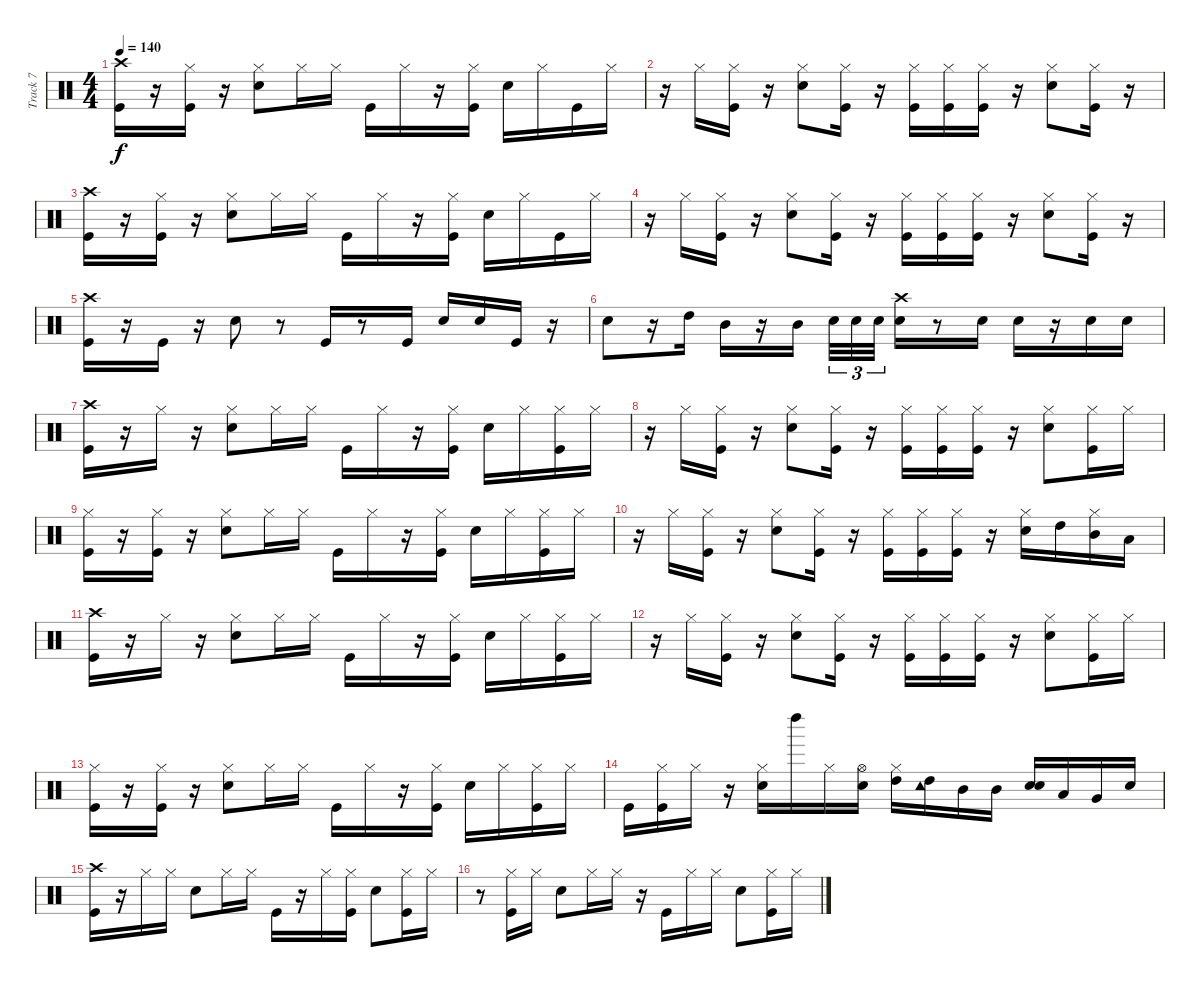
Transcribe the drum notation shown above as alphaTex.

\track ("Track 7" "Track 7") {instrument percussion}
\staff {score}
\articulation defaults
\ts (4 4)
\tempo 140
\clef neutral
\ks c
("Kick (hit)" "Crash high (hit)").16{dy f} r.16 ("Hi-Hat (closed)" "Kick (hit)").16 r.16 ("Hi-Hat (closed)" "Electric Snare (hit)").8 "Hi-Hat (closed)".16 "Hi-Hat (closed)".16 "Kick (hit)".16 "Hi-Hat (closed)".16 r.16 ("Kick (hit)" "Hi-Hat (closed)").16 "Electric Snare (hit)".16 "Hi-Hat (closed)".16 "Kick (hit)".16 "Hi-Hat (closed)".16 |
r.16 "Hi-Hat (closed)".16 ("Hi-Hat (closed)" "Kick (hit)").16 r.16 ("Hi-Hat (closed)" "Electric Snare (hit)").8 ("Hi-Hat (closed)" "Kick (hit)").16 r.16 ("Hi-Hat (closed)" "Kick (hit)").16 ("Kick (hit)" "Hi-Hat (closed)").16 ("Hi-Hat (closed)" "Kick (hit)").16 r.16 ("Hi-Hat (closed)" "Electric Snare (hit)").8 ("Hi-Hat (closed)" "Kick (hit)").16 r.16 |
("Kick (hit)" "Crash high (hit)").16 r.16 ("Hi-Hat (closed)" "Kick (hit)").16 r.16 ("Hi-Hat (closed)" "Electric Snare (hit)").8 "Hi-Hat (closed)".16 "Hi-Hat (closed)".16 "Kick (hit)".16 "Hi-Hat (closed)".16 r.16 ("Kick (hit)" "Hi-Hat (closed)").16 "Electric Snare (hit)".16 "Hi-Hat (closed)".16 "Kick (hit)".16 "Hi-Hat (closed)".16 |
r.16 "Hi-Hat (closed)".16 ("Hi-Hat (closed)" "Kick (hit)").16 r.16 ("Hi-Hat (closed)" "Electric Snare (hit)").8 ("Hi-Hat (closed)" "Kick (hit)").16 r.16 ("Hi-Hat (closed)" "Kick (hit)").16 ("Kick (hit)" "Hi-Hat (closed)").16 ("Hi-Hat (closed)" "Kick (hit)").16 r.16 ("Hi-Hat (closed)" "Electric Snare (hit)").8 ("Hi-Hat (closed)" "Kick (hit)").16 r.16 |
("Crash high (hit)" "Kick (hit)").16 r.16 "Kick (hit)".16 r.16 "Electric Snare (hit)".8 r.8 "Kick (hit)".16 r.8 "Kick (hit)".16 "Electric Snare (hit)".16 "Electric Snare (hit)".16 "Kick (hit)".16 r.16 |
"Electric Snare (hit)".8 r.16 "High Tom (hit)".16 "Mid Tom (hit)".16 r.16 "Mid Tom (hit)".16{beam splitsecondary} "Electric Snare (hit)".32{tu (3 2)} "Electric Snare (hit)".32{tu (3 2)} "Electric Snare (hit)".32{tu (3 2)} ("Crash high (hit)" "Electric Snare (hit)").16 r.8 "Electric Snare (hit)".16 "Electric Snare (hit)".16 r.16 "Electric Snare (hit)".16 "Electric Snare (hit)".16 |
("Crash high (hit)" "Kick (hit)").16 r.16 "Hi-Hat (closed)".16 r.16 ("Hi-Hat (closed)" "Electric Snare (hit)").8 "Hi-Hat (closed)".16 "Hi-Hat (closed)".16 "Kick (hit)".16 "Hi-Hat (closed)".16 r.16 ("Kick (hit)" "Hi-Hat (closed)").16 "Electric Snare (hit)".16 "Hi-Hat (closed)".16 ("Hi-Hat (closed)" "Kick (hit)").16 "Hi-Hat (closed)".16 |
r.16 "Hi-Hat (closed)".16 ("Hi-Hat (closed)" "Kick (hit)").16 r.16 ("Hi-Hat (closed)" "Electric Snare (hit)").8 ("Hi-Hat (closed)" "Kick (hit)").16 r.16 ("Hi-Hat (closed)" "Kick (hit)").16 ("Kick (hit)" "Hi-Hat (closed)").16 ("Hi-Hat (closed)" "Kick (hit)").16 r.16 ("Hi-Hat (closed)" "Electric Snare (hit)").8 ("Hi-Hat (closed)" "Kick (hit)").16 "Hi-Hat (closed)".16 |
("Hi-Hat (closed)" "Kick (hit)").16 r.16 ("Hi-Hat (closed)" "Kick (hit)").16 r.16 ("Hi-Hat (closed)" "Electric Snare (hit)").8 "Hi-Hat (closed)".16 "Hi-Hat (closed)".16 "Kick (hit)".16 "Hi-Hat (closed)".16 r.16 ("Kick (hit)" "Hi-Hat (closed)").16 "Electric Snare (hit)".16 "Hi-Hat (closed)".16 ("Hi-Hat (closed)" "Kick (hit)").16 "Hi-Hat (closed)".16 |
r.16 "Hi-Hat (closed)".16 ("Hi-Hat (closed)" "Kick (hit)").16 r.16 ("Hi-Hat (closed)" "Electric Snare (hit)").8 ("Hi-Hat (closed)" "Kick (hit)").16 r.16 ("Hi-Hat (closed)" "Kick (hit)").16 ("Kick (hit)" "Hi-Hat (closed)").16 ("Hi-Hat (closed)" "Kick (hit)").16 r.16 ("Hi-Hat (closed)" "Electric Snare (hit)").16 "High Tom (hit)".16 ("Hi-Hat (closed)" "Mid Tom (hit)").16 "Low Tom (hit)".16 |
("Crash high (hit)" "Kick (hit)").16 r.16 "Hi-Hat (closed)".16 r.16 ("Hi-Hat (closed)" "Electric Snare (hit)").8 "Hi-Hat (closed)".16 "Hi-Hat (closed)".16 "Kick (hit)".16 "Hi-Hat (closed)".16 r.16 ("Kick (hit)" "Hi-Hat (closed)").16 "Electric Snare (hit)".16 "Hi-Hat (closed)".16 ("Hi-Hat (closed)" "Kick (hit)").16 "Hi-Hat (closed)".16 |
r.16 "Hi-Hat (closed)".16 ("Hi-Hat (closed)" "Kick (hit)").16 r.16 ("Hi-Hat (closed)" "Electric Snare (hit)").8 ("Hi-Hat (closed)" "Kick (hit)").16 r.16 ("Hi-Hat (closed)" "Kick (hit)").16 ("Kick (hit)" "Hi-Hat (closed)").16 ("Hi-Hat (closed)" "Kick (hit)").16 r.16 ("Hi-Hat (closed)" "Electric Snare (hit)").8 ("Hi-Hat (closed)" "Kick (hit)").16 "Hi-Hat (closed)".16 |
("Hi-Hat (closed)" "Kick (hit)").16 r.16 ("Hi-Hat (closed)" "Kick (hit)").16 r.16 ("Hi-Hat (closed)" "Electric Snare (hit)").8 "Hi-Hat (closed)".16 "Hi-Hat (closed)".16 "Kick (hit)".16 "Hi-Hat (closed)".16 r.16 ("Kick (hit)" "Hi-Hat (closed)").16 "Electric Snare (hit)".16 "Hi-Hat (closed)".16 ("Hi-Hat (closed)" "Kick (hit)").16 "Hi-Hat (closed)".16 |
"Kick (hit)".16 ("Kick (hit)" "Hi-Hat (closed)").16 "Hi-Hat (closed)".16 r.16 ("Hi-Hat (closed)" "Electric Snare (hit)").16 "Left Maraca (hit)".16 "Hi-Hat (closed)".16 ("Hi-Hat (open)" "Electric Snare (hit)").16 ("Hi-Hat (closed)" "High Tom (hit)").16 ("Tambourine (hit)" "High Tom (hit)").16 "Mid Tom (hit)".16 "Mid Tom (hit)".16 ("Electric Snare (hit)" "Electric Snare (hit)").16 "Low Tom (hit)".16 "Very Low Tom (hit)".16 "Electric Snare (hit)".16 |
("Crash high (hit)" "Kick (hit)").16 r.16 "Hi-Hat (closed)".16 "Hi-Hat (closed)".16 "Electric Snare (hit)".8 "Hi-Hat (closed)".16 "Hi-Hat (closed)".16 "Kick (hit)".16 r.16 "Hi-Hat (closed)".16 ("Kick (hit)" "Hi-Hat (closed)").16 "Electric Snare (hit)".8 ("Hi-Hat (closed)" "Kick (hit)").16 "Hi-Hat (closed)".16 |
r.8 ("Hi-Hat (closed)" "Kick (hit)").16 "Hi-Hat (closed)".16 "Electric Snare (hit)".8 "Hi-Hat (closed)".16 "Hi-Hat (closed)".16 r.16 "Kick (hit)".16 "Hi-Hat (closed)".16 "Hi-Hat (closed)".16 "Electric Snare (hit)".8 ("Hi-Hat (closed)" "Kick (hit)").16 "Hi-Hat (closed)".16
